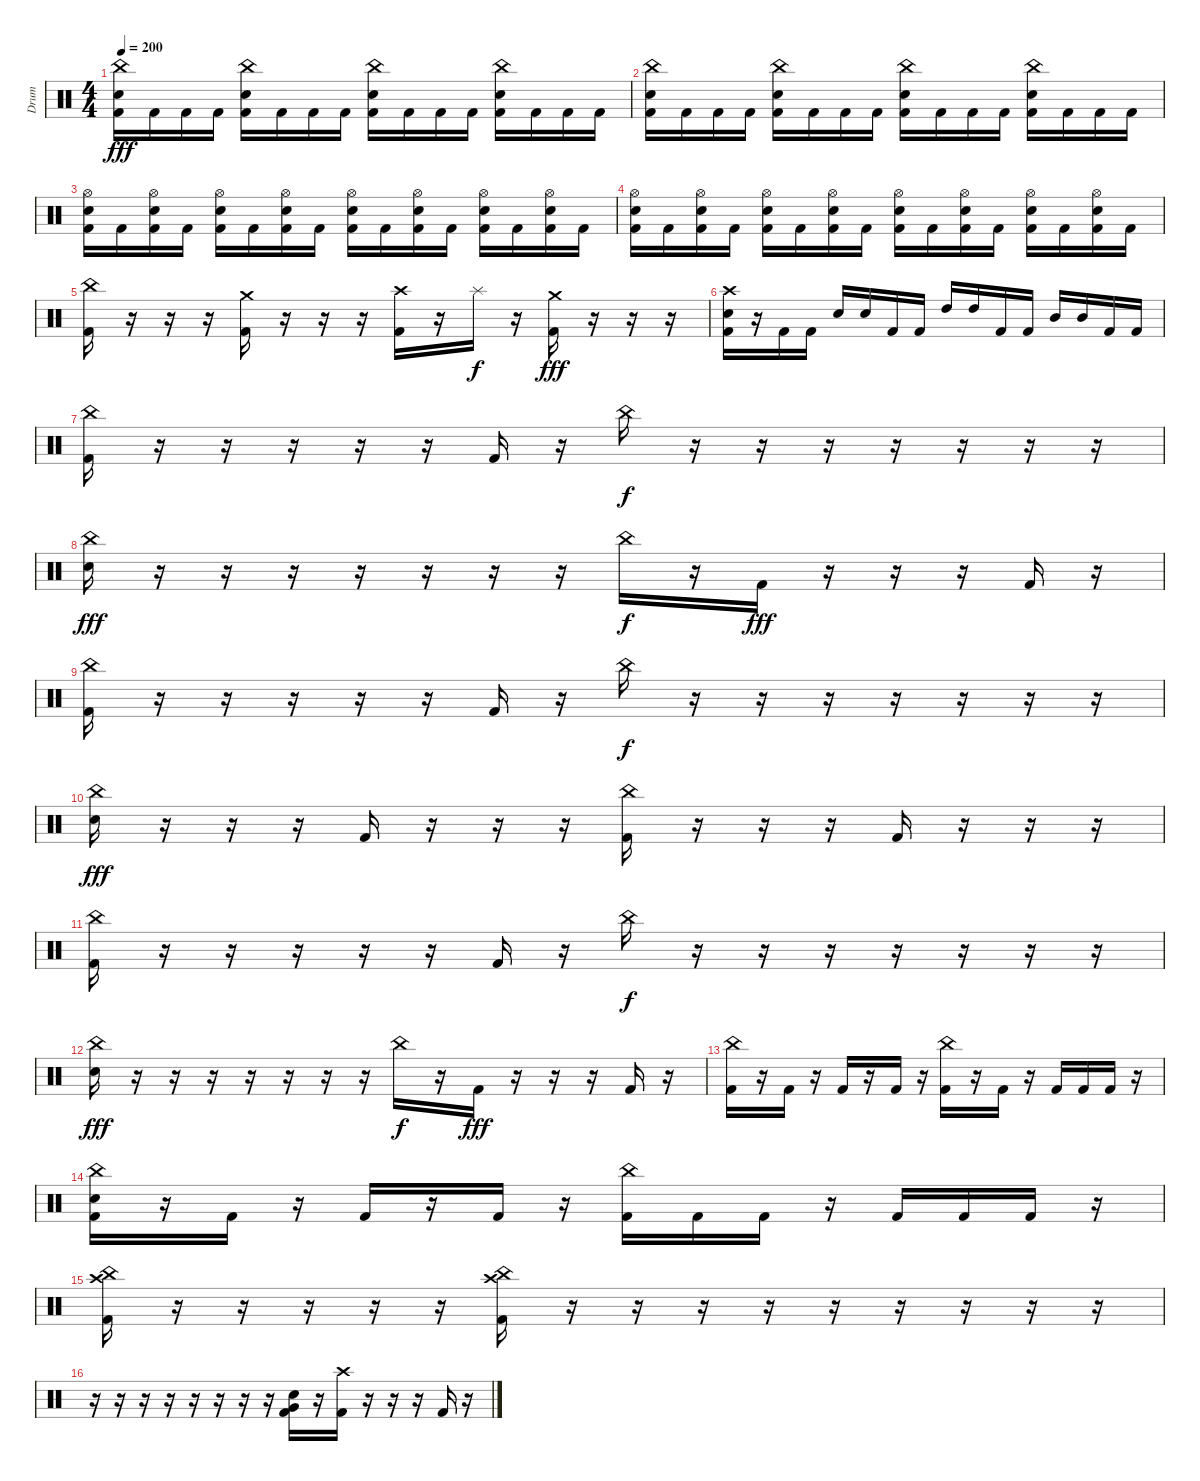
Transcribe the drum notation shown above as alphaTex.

\track ("Drum" "Drum") {instrument percussion}
\staff {score}
\articulation defaults
\ts (4 4)
\tempo 200
\clef neutral
\ks c
("China (hit)" "Electric Snare (hit)" "Kick (hit) 2").16{dy fff} "Kick (hit) 2".16 "Kick (hit) 2".16 "Kick (hit) 2".16 ("China (hit)" "Electric Snare (hit)" "Kick (hit) 2").16 "Kick (hit) 2".16 "Kick (hit) 2".16 "Kick (hit) 2".16 ("China (hit)" "Electric Snare (hit)" "Kick (hit) 2").16 "Kick (hit) 2".16 "Kick (hit) 2".16 "Kick (hit) 2".16 ("China (hit)" "Electric Snare (hit)" "Kick (hit) 2").16 "Kick (hit) 2".16 "Kick (hit) 2".16 "Kick (hit) 2".16 |
("China (hit)" "Electric Snare (hit)" "Kick (hit) 2").16 "Kick (hit) 2".16 "Kick (hit) 2".16 "Kick (hit) 2".16 ("China (hit)" "Electric Snare (hit)" "Kick (hit) 2").16 "Kick (hit) 2".16 "Kick (hit) 2".16 "Kick (hit) 2".16 ("China (hit)" "Electric Snare (hit)" "Kick (hit) 2").16 "Kick (hit) 2".16 "Kick (hit) 2".16 "Kick (hit) 2".16 ("China (hit)" "Electric Snare (hit)" "Kick (hit) 2").16 "Kick (hit) 2".16 "Kick (hit) 2".16 "Kick (hit) 2".16 |
("Hi-Hat (open)" "Electric Snare (hit)" "Kick (hit) 2").16 "Kick (hit) 2".16 ("Hi-Hat (open)" "Electric Snare (hit)" "Kick (hit) 2").16 "Kick (hit) 2".16 ("Hi-Hat (open)" "Electric Snare (hit)" "Kick (hit) 2").16 "Kick (hit) 2".16 ("Hi-Hat (open)" "Electric Snare (hit)" "Kick (hit) 2").16 "Kick (hit) 2".16 ("Hi-Hat (open)" "Electric Snare (hit)" "Kick (hit) 2").16 "Kick (hit) 2".16 ("Hi-Hat (open)" "Electric Snare (hit)" "Kick (hit) 2").16 "Kick (hit) 2".16 ("Hi-Hat (open)" "Electric Snare (hit)" "Kick (hit) 2").16 "Kick (hit) 2".16 ("Hi-Hat (open)" "Electric Snare (hit)" "Kick (hit) 2").16 "Kick (hit) 2".16 |
("Hi-Hat (open)" "Electric Snare (hit)" "Kick (hit) 2").16 "Kick (hit) 2".16 ("Hi-Hat (open)" "Electric Snare (hit)" "Kick (hit) 2").16 "Kick (hit) 2".16 ("Hi-Hat (open)" "Electric Snare (hit)" "Kick (hit) 2").16 "Kick (hit) 2".16 ("Hi-Hat (open)" "Electric Snare (hit)" "Kick (hit) 2").16 "Kick (hit) 2".16 ("Hi-Hat (open)" "Electric Snare (hit)" "Kick (hit) 2").16 "Kick (hit) 2".16 ("Hi-Hat (open)" "Electric Snare (hit)" "Kick (hit) 2").16 "Kick (hit) 2".16 ("Hi-Hat (open)" "Electric Snare (hit)" "Kick (hit) 2").16 "Kick (hit) 2".16 ("Hi-Hat (open)" "Electric Snare (hit)" "Kick (hit) 2").16 "Kick (hit) 2".16 |
("China (hit)" "Kick (hit) 2").16 r.16 r.16 r.16 ("Crash medium (hit)" "Kick (hit) 2").16 r.16 r.16 r.16 ("Crash high (hit)" "Kick (hit) 2").16 r.16 "Splash (hit)".16{dy f} r.16 ("Crash medium (hit)" "Kick (hit) 2").16{dy fff} r.16 r.16 r.16 |
("Crash high (hit)" "Electric Snare (hit)" "Kick (hit) 2").16 r.16 "Kick (hit) 2".16 "Kick (hit) 2".16 "Electric Snare (hit)".16 "Electric Snare (hit)".16 "Kick (hit) 2".16 "Kick (hit) 2".16 "High Tom (hit)".16 "High Tom (hit)".16 "Kick (hit) 2".16 "Kick (hit) 2".16 "Mid Tom (hit)".16 "Mid Tom (hit)".16 "Kick (hit) 2".16 "Kick (hit) 2".16 |
("China (hit)" "Kick (hit) 2").16 r.16 r.16 r.16 r.16 r.16 "Kick (hit) 2".16 r.16 "China (hit)".16{dy f} r.16 r.16 r.16 r.16 r.16 r.16 r.16 |
("China (hit)" "Electric Snare (hit)").16{dy fff} r.16 r.16 r.16 r.16 r.16 r.16 r.16 "China (hit)".16{dy f} r.16 "Kick (hit) 2".16{dy fff} r.16 r.16 r.16 "Kick (hit) 2".16 r.16 |
("China (hit)" "Kick (hit) 2").16 r.16 r.16 r.16 r.16 r.16 "Kick (hit) 2".16 r.16 "China (hit)".16{dy f} r.16 r.16 r.16 r.16 r.16 r.16 r.16 |
("China (hit)" "Electric Snare (hit)").16{dy fff} r.16 r.16 r.16 "Kick (hit) 2".16 r.16 r.16 r.16 ("China (hit)" "Kick (hit) 2").16 r.16 r.16 r.16 "Kick (hit) 2".16 r.16 r.16 r.16 |
("China (hit)" "Kick (hit) 2").16 r.16 r.16 r.16 r.16 r.16 "Kick (hit) 2".16 r.16 "China (hit)".16{dy f} r.16 r.16 r.16 r.16 r.16 r.16 r.16 |
("China (hit)" "Electric Snare (hit)").16{dy fff} r.16 r.16 r.16 r.16 r.16 r.16 r.16 "China (hit)".16{dy f} r.16 "Kick (hit) 2".16{dy fff} r.16 r.16 r.16 "Kick (hit) 2".16 r.16 |
("China (hit)" "Kick (hit) 2").16 r.16 "Kick (hit) 2".16 r.16 "Kick (hit) 2".16 r.16 "Kick (hit) 2".16 r.16 ("China (hit)" "Kick (hit) 2").16 r.16 "Kick (hit) 2".16 r.16 "Kick (hit) 2".16 "Kick (hit) 2".16 "Kick (hit) 2".16 r.16 |
("China (hit)" "Electric Snare (hit)" "Kick (hit) 2").16 r.16 "Kick (hit) 2".16 r.16 "Kick (hit) 2".16 r.16 "Kick (hit) 2".16 r.16 ("China (hit)" "Kick (hit) 2").16 "Kick (hit) 2".16 "Kick (hit) 2".16 r.16 "Kick (hit) 2".16 "Kick (hit) 2".16 "Kick (hit) 2".16 r.16 |
("Crash high (hit)" "China (hit)" "Kick (hit) 2").16 r.16 r.16 r.16 r.16 r.16 ("Crash high (hit)" "China (hit)" "Kick (hit) 2").16 r.16 r.16 r.16 r.16 r.16 r.16 r.16 r.16 r.16 |
r.16 r.16 r.16 r.16 r.16 r.16 r.16 r.16 ("Very Low Tom (hit)" "Electric Snare (hit)" "Kick (hit) 2").16 r.16 ("Crash high (hit)" "Kick (hit) 2").16 r.16 r.16 r.16 "Kick (hit) 2".16 r.16
